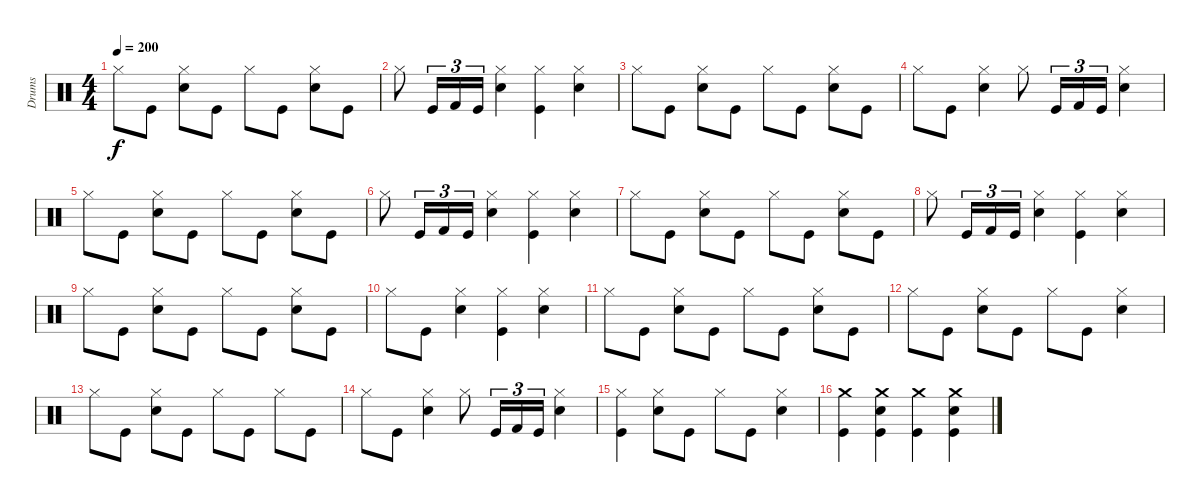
\track ("Drums" "Drums") {instrument percussion}
\staff {score}
\articulation defaults
\ts (4 4)
\tempo 200
\clef neutral
\ks c "Hi-Hat (closed)".8{dy f} "Kick (hit)".8
("Snare (hit) 2" "Hi-Hat (closed)").8 "Kick (hit)".8 "Hi-Hat (closed)".8 "Kick (hit)".8 ("Snare (hit) 2" "Hi-Hat (closed)").8 "Kick (hit)".8 |
"Hi-Hat (closed)".8 "Kick (hit)".16{tu (3 2)} "Kick (hit) 2".16{tu (3 2)} "Kick (hit)".16{tu (3 2)} ("Snare (hit) 2" "Hi-Hat (closed)").4 ("Kick (hit)" "Hi-Hat (closed)").4 ("Hi-Hat (closed)" "Snare (hit) 2").4 |
"Hi-Hat (closed)".8 "Kick (hit)".8 ("Snare (hit) 2" "Hi-Hat (closed)").8 "Kick (hit)".8 "Hi-Hat (closed)".8 "Kick (hit)".8 ("Snare (hit) 2" "Hi-Hat (closed)").8 "Kick (hit)".8 |
"Hi-Hat (closed)".8 "Kick (hit)".8 ("Snare (hit) 2" "Hi-Hat (closed)").4 "Hi-Hat (closed)".8 "Kick (hit)".16{tu (3 2)} "Kick (hit) 2".16{tu (3 2)} "Kick (hit)".16{tu (3 2)} ("Snare (hit) 2" "Hi-Hat (closed)").4 |
"Hi-Hat (closed)".8 "Kick (hit)".8 ("Snare (hit) 2" "Hi-Hat (closed)").8 "Kick (hit)".8 "Hi-Hat (closed)".8 "Kick (hit)".8 ("Snare (hit) 2" "Hi-Hat (closed)").8 "Kick (hit)".8 |
"Hi-Hat (closed)".8 "Kick (hit)".16{tu (3 2)} "Kick (hit) 2".16{tu (3 2)} "Kick (hit)".16{tu (3 2)} ("Snare (hit) 2" "Hi-Hat (closed)").4 ("Kick (hit)" "Hi-Hat (closed)").4 ("Hi-Hat (closed)" "Snare (hit) 2").4 |
"Hi-Hat (closed)".8 "Kick (hit)".8 ("Snare (hit) 2" "Hi-Hat (closed)").8 "Kick (hit)".8 "Hi-Hat (closed)".8 "Kick (hit)".8 ("Snare (hit) 2" "Hi-Hat (closed)").8 "Kick (hit)".8 |
"Hi-Hat (closed)".8 "Kick (hit)".16{tu (3 2)} "Kick (hit) 2".16{tu (3 2)} "Kick (hit)".16{tu (3 2)} ("Snare (hit) 2" "Hi-Hat (closed)").4 ("Kick (hit)" "Hi-Hat (closed)").4 ("Hi-Hat (closed)" "Snare (hit) 2").4 |
"Hi-Hat (closed)".8 "Kick (hit)".8 ("Snare (hit) 2" "Hi-Hat (closed)").8 "Kick (hit)".8 "Hi-Hat (closed)".8 "Kick (hit)".8 ("Snare (hit) 2" "Hi-Hat (closed)").8 "Kick (hit)".8 |
"Hi-Hat (closed)".8 "Kick (hit)".8 ("Snare (hit) 2" "Hi-Hat (closed)").4 ("Hi-Hat (closed)" "Kick (hit)").4 ("Snare (hit) 2" "Hi-Hat (closed)").4 |
"Hi-Hat (closed)".8 "Kick (hit)".8 ("Snare (hit) 2" "Hi-Hat (closed)").8 "Kick (hit)".8 "Hi-Hat (closed)".8 "Kick (hit)".8 ("Snare (hit) 2" "Hi-Hat (closed)").8 "Kick (hit)".8 |
"Hi-Hat (closed)".8 "Kick (hit)".8 ("Snare (hit) 2" "Hi-Hat (closed)").8 "Kick (hit)".8 "Hi-Hat (closed)".8 "Kick (hit)".8 ("Snare (hit) 2" "Hi-Hat (closed)").4 |
"Hi-Hat (closed)".8 "Kick (hit)".8 ("Snare (hit) 2" "Hi-Hat (closed)").8 "Kick (hit)".8 "Hi-Hat (closed)".8 "Kick (hit)".8 "Hi-Hat (closed)".8 "Kick (hit)".8 |
"Hi-Hat (closed)".8 "Kick (hit)".8 ("Snare (hit) 2" "Hi-Hat (closed)").4 "Hi-Hat (closed)".8 "Kick (hit)".16{tu (3 2)} "Kick (hit) 2".16{tu (3 2)} "Kick (hit)".16{tu (3 2)} ("Snare (hit) 2" "Hi-Hat (closed)").4 |
("Kick (hit)" "Hi-Hat (closed)").4 ("Snare (hit) 2" "Hi-Hat (closed)").8 "Kick (hit)".8 "Hi-Hat (closed)".8 "Kick (hit)".8 ("Snare (hit) 2" "Hi-Hat (closed)").4 |
("Kick (hit)" "Crash medium (hit)").4 ("Kick (hit)" "Snare (hit) 2" "Crash medium (hit)").4 ("Kick (hit)" "Crash medium (hit)").4 ("Kick (hit)" "Snare (hit) 2" "Crash medium (hit)").4
